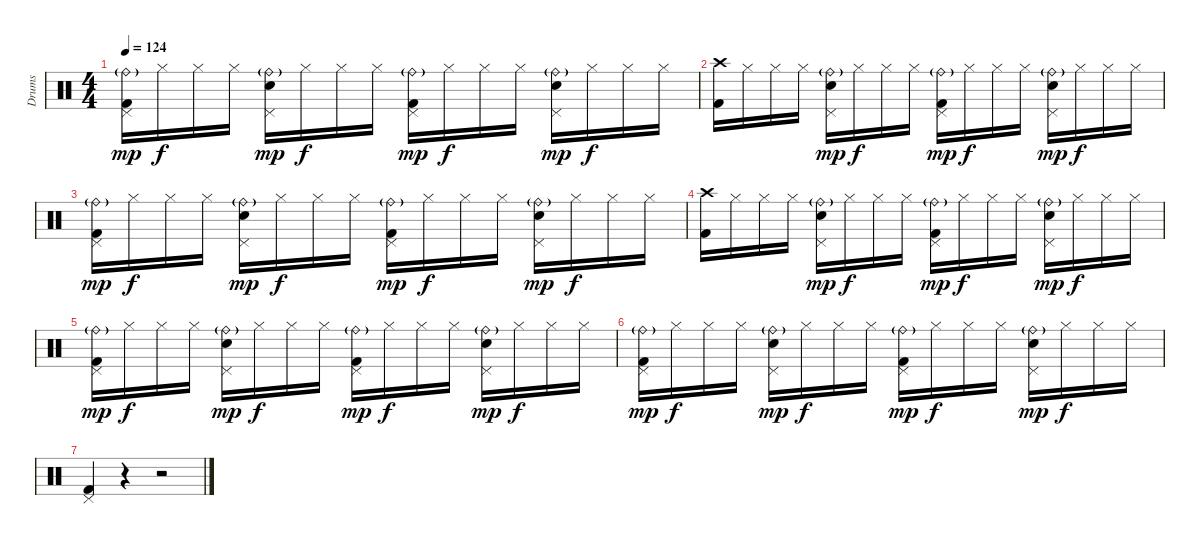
\track ("Drums" "Drums") {instrument percussion}
\staff {score}
\articulation defaults
\ts (4 4)
\tempo 124
\clef neutral
\ks c
("Ride (bell)"{g} "Pedal Hi-Hat (hit)" "Kick (hit) 2").16{dy mp} "Hi-Hat (closed)".16{dy f} "Hi-Hat (closed)".16 "Hi-Hat (closed)".16 ("Ride (bell)"{g} "Pedal Hi-Hat (hit)" "Snare (hit) 2").16{dy mp} "Hi-Hat (closed)".16{dy f} "Hi-Hat (closed)".16 "Hi-Hat (closed)".16 ("Ride (bell)"{g} "Pedal Hi-Hat (hit)" "Kick (hit) 2").16{dy mp} "Hi-Hat (closed)".16{dy f} "Hi-Hat (closed)".16 "Hi-Hat (closed)".16 ("Ride (bell)"{g} "Pedal Hi-Hat (hit)" "Snare (hit) 2").16{dy mp} "Hi-Hat (closed)".16{dy f} "Hi-Hat (closed)".16 "Hi-Hat (closed)".16 |
("Crash high (hit)" "Kick (hit) 2").16 "Hi-Hat (closed)".16 "Hi-Hat (closed)".16 "Hi-Hat (closed)".16 ("Ride (bell)"{g} "Pedal Hi-Hat (hit)" "Snare (hit) 2").16{dy mp} "Hi-Hat (closed)".16{dy f} "Hi-Hat (closed)".16 "Hi-Hat (closed)".16 ("Ride (bell)"{g} "Pedal Hi-Hat (hit)" "Kick (hit) 2").16{dy mp} "Hi-Hat (closed)".16{dy f} "Hi-Hat (closed)".16 "Hi-Hat (closed)".16 ("Ride (bell)"{g} "Pedal Hi-Hat (hit)" "Snare (hit) 2").16{dy mp} "Hi-Hat (closed)".16{dy f} "Hi-Hat (closed)".16 "Hi-Hat (closed)".16 |
("Ride (bell)"{g} "Pedal Hi-Hat (hit)" "Kick (hit) 2").16{dy mp} "Hi-Hat (closed)".16{dy f} "Hi-Hat (closed)".16 "Hi-Hat (closed)".16 ("Ride (bell)"{g} "Pedal Hi-Hat (hit)" "Snare (hit) 2").16{dy mp} "Hi-Hat (closed)".16{dy f} "Hi-Hat (closed)".16 "Hi-Hat (closed)".16 ("Ride (bell)"{g} "Pedal Hi-Hat (hit)" "Kick (hit) 2").16{dy mp} "Hi-Hat (closed)".16{dy f} "Hi-Hat (closed)".16 "Hi-Hat (closed)".16 ("Ride (bell)"{g} "Pedal Hi-Hat (hit)" "Snare (hit) 2").16{dy mp} "Hi-Hat (closed)".16{dy f} "Hi-Hat (closed)".16 "Hi-Hat (closed)".16 |
("Crash high (hit)" "Kick (hit) 2").16 "Hi-Hat (closed)".16 "Hi-Hat (closed)".16 "Hi-Hat (closed)".16 ("Ride (bell)"{g} "Pedal Hi-Hat (hit)" "Snare (hit) 2").16{dy mp} "Hi-Hat (closed)".16{dy f} "Hi-Hat (closed)".16 "Hi-Hat (closed)".16 ("Ride (bell)"{g} "Pedal Hi-Hat (hit)" "Kick (hit) 2").16{dy mp} "Hi-Hat (closed)".16{dy f} "Hi-Hat (closed)".16 "Hi-Hat (closed)".16 ("Ride (bell)"{g} "Pedal Hi-Hat (hit)" "Snare (hit) 2").16{dy mp} "Hi-Hat (closed)".16{dy f} "Hi-Hat (closed)".16 "Hi-Hat (closed)".16 |
("Ride (bell)"{g} "Pedal Hi-Hat (hit)" "Kick (hit) 2").16{dy mp} "Hi-Hat (closed)".16{dy f} "Hi-Hat (closed)".16 "Hi-Hat (closed)".16 ("Ride (bell)"{g} "Pedal Hi-Hat (hit)" "Snare (hit) 2").16{dy mp} "Hi-Hat (closed)".16{dy f} "Hi-Hat (closed)".16 "Hi-Hat (closed)".16 ("Ride (bell)"{g} "Pedal Hi-Hat (hit)" "Kick (hit) 2").16{dy mp} "Hi-Hat (closed)".16{dy f} "Hi-Hat (closed)".16 "Hi-Hat (closed)".16 ("Ride (bell)"{g} "Pedal Hi-Hat (hit)" "Snare (hit) 2").16{dy mp} "Hi-Hat (closed)".16{dy f} "Hi-Hat (closed)".16 "Hi-Hat (closed)".16 |
("Ride (bell)"{g} "Pedal Hi-Hat (hit)" "Kick (hit) 2").16{dy mp} "Hi-Hat (closed)".16{dy f} "Hi-Hat (closed)".16 "Hi-Hat (closed)".16 ("Ride (bell)"{g} "Pedal Hi-Hat (hit)" "Snare (hit) 2").16{dy mp} "Hi-Hat (closed)".16{dy f} "Hi-Hat (closed)".16 "Hi-Hat (closed)".16 ("Ride (bell)"{g} "Pedal Hi-Hat (hit)" "Kick (hit) 2").16{dy mp} "Hi-Hat (closed)".16{dy f} "Hi-Hat (closed)".16 "Hi-Hat (closed)".16 ("Ride (bell)"{g} "Pedal Hi-Hat (hit)" "Snare (hit) 2").16{dy mp} "Hi-Hat (closed)".16{dy f} "Hi-Hat (closed)".16 "Hi-Hat (closed)".16 |
("Pedal Hi-Hat (hit)" "Kick (hit) 2").4 r.4 r.2
